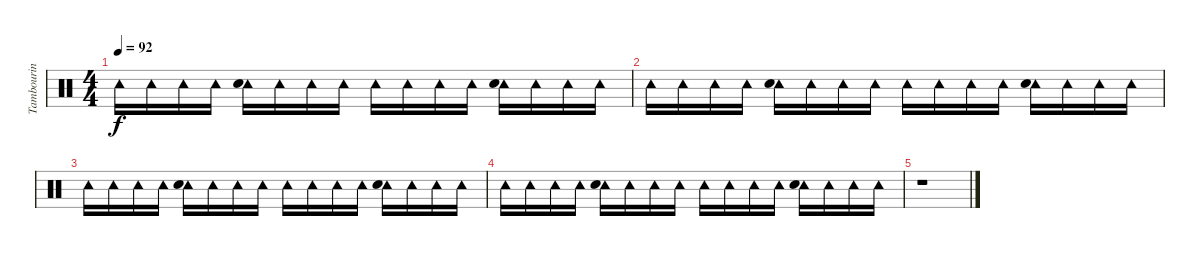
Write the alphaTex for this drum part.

\track ("Tambourin" "Tambourin") {instrument percussion}
\staff {score}
\articulation defaults
\ts (4 4)
\tempo 92
\clef neutral
\ks c "Tambourine (hit)".16{dy f} "Tambourine (hit)".16 "Tambourine (hit)".16 "Tambourine (hit)".16
("Tambourine (hit)" "Hand Clap (hit)").16 "Tambourine (hit)".16 "Tambourine (hit)".16 "Tambourine (hit)".16 "Tambourine (hit)".16 "Tambourine (hit)".16 "Tambourine (hit)".16 "Tambourine (hit)".16 ("Tambourine (hit)" "Hand Clap (hit)").16 "Tambourine (hit)".16 "Tambourine (hit)".16 "Tambourine (hit)".16 |
"Tambourine (hit)".16 "Tambourine (hit)".16 "Tambourine (hit)".16 "Tambourine (hit)".16 ("Tambourine (hit)" "Hand Clap (hit)").16 "Tambourine (hit)".16 "Tambourine (hit)".16 "Tambourine (hit)".16 "Tambourine (hit)".16 "Tambourine (hit)".16 "Tambourine (hit)".16 "Tambourine (hit)".16 ("Tambourine (hit)" "Hand Clap (hit)").16 "Tambourine (hit)".16 "Tambourine (hit)".16 "Tambourine (hit)".16 |
"Tambourine (hit)".16 "Tambourine (hit)".16 "Tambourine (hit)".16 "Tambourine (hit)".16 ("Tambourine (hit)" "Hand Clap (hit)").16 "Tambourine (hit)".16 "Tambourine (hit)".16 "Tambourine (hit)".16 "Tambourine (hit)".16 "Tambourine (hit)".16 "Tambourine (hit)".16 "Tambourine (hit)".16 ("Tambourine (hit)" "Hand Clap (hit)").16 "Tambourine (hit)".16 "Tambourine (hit)".16 "Tambourine (hit)".16 |
"Tambourine (hit)".16 "Tambourine (hit)".16 "Tambourine (hit)".16 "Tambourine (hit)".16 ("Tambourine (hit)" "Hand Clap (hit)").16 "Tambourine (hit)".16 "Tambourine (hit)".16 "Tambourine (hit)".16 "Tambourine (hit)".16 "Tambourine (hit)".16 "Tambourine (hit)".16 "Tambourine (hit)".16 ("Tambourine (hit)" "Hand Clap (hit)").16 "Tambourine (hit)".16 "Tambourine (hit)".16 "Tambourine (hit)".16 |
r.1
